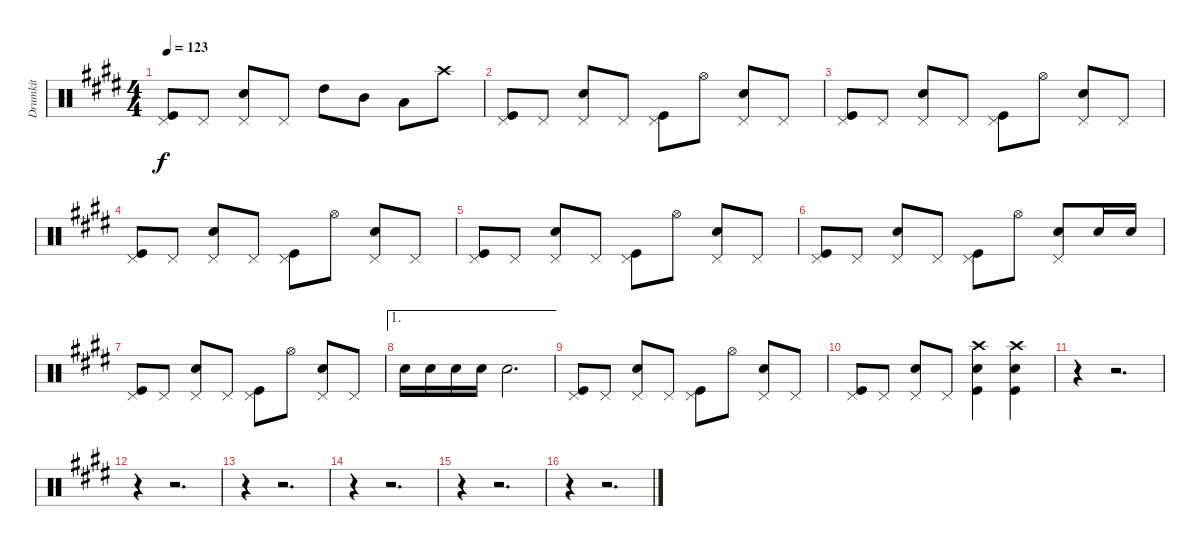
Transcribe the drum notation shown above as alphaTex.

\track ("Drumkit" "Drumkit") {instrument percussion}
\staff {score}
\articulation defaults
\ts (4 4)
\tempo 123
\clef neutral
\ks e
("Pedal Hi-Hat (hit)" "Kick (hit)").8{dy f} "Pedal Hi-Hat (hit)".8 ("Pedal Hi-Hat (hit)" "Snare (hit) 2").8 "Pedal Hi-Hat (hit)".8 "High Tom (hit)".8 "Mid Tom (hit)".8 "Low Tom (hit)".8 "Crash high (hit)".8 |
("Pedal Hi-Hat (hit)" "Kick (hit)").8 "Pedal Hi-Hat (hit)".8 ("Pedal Hi-Hat (hit)" "Snare (hit) 2").8 "Pedal Hi-Hat (hit)".8 ("Pedal Hi-Hat (hit)" "Kick (hit)").8 "Hi-Hat (open)".8 ("Pedal Hi-Hat (hit)" "Snare (hit) 2").8 "Pedal Hi-Hat (hit)".8 |
("Pedal Hi-Hat (hit)" "Kick (hit)").8 "Pedal Hi-Hat (hit)".8 ("Pedal Hi-Hat (hit)" "Snare (hit) 2").8 "Pedal Hi-Hat (hit)".8 ("Pedal Hi-Hat (hit)" "Kick (hit)").8 "Hi-Hat (open)".8 ("Pedal Hi-Hat (hit)" "Snare (hit) 2").8 "Pedal Hi-Hat (hit)".8 |
("Pedal Hi-Hat (hit)" "Kick (hit)").8 "Pedal Hi-Hat (hit)".8 ("Pedal Hi-Hat (hit)" "Snare (hit) 2").8 "Pedal Hi-Hat (hit)".8 ("Pedal Hi-Hat (hit)" "Kick (hit)").8 "Hi-Hat (open)".8 ("Pedal Hi-Hat (hit)" "Snare (hit) 2").8 "Pedal Hi-Hat (hit)".8 |
("Pedal Hi-Hat (hit)" "Kick (hit)").8 "Pedal Hi-Hat (hit)".8 ("Pedal Hi-Hat (hit)" "Snare (hit) 2").8 "Pedal Hi-Hat (hit)".8 ("Pedal Hi-Hat (hit)" "Kick (hit)").8 "Hi-Hat (open)".8 ("Pedal Hi-Hat (hit)" "Snare (hit) 2").8 "Pedal Hi-Hat (hit)".8 |
("Pedal Hi-Hat (hit)" "Kick (hit)").8 "Pedal Hi-Hat (hit)".8 ("Pedal Hi-Hat (hit)" "Snare (hit) 2").8 "Pedal Hi-Hat (hit)".8 ("Pedal Hi-Hat (hit)" "Kick (hit)").8 "Hi-Hat (open)".8 ("Pedal Hi-Hat (hit)" "Snare (hit) 2").8 "Snare (hit) 2".16 "Snare (hit) 2".16 |
("Pedal Hi-Hat (hit)" "Kick (hit)").8 "Pedal Hi-Hat (hit)".8 ("Pedal Hi-Hat (hit)" "Snare (hit) 2").8 "Pedal Hi-Hat (hit)".8 ("Pedal Hi-Hat (hit)" "Kick (hit)").8 "Hi-Hat (open)".8 ("Pedal Hi-Hat (hit)" "Snare (hit) 2").8 "Pedal Hi-Hat (hit)".8 |
\ae 1 "Snare (hit) 2".16 "Snare (hit) 2".16 "Snare (hit) 2".16 "Snare (hit) 2".16 "Snare (hit) 2".2{d}
|
("Pedal Hi-Hat (hit)" "Kick (hit)").8 "Pedal Hi-Hat (hit)".8 ("Pedal Hi-Hat (hit)" "Snare (hit) 2").8 "Pedal Hi-Hat (hit)".8 ("Pedal Hi-Hat (hit)" "Kick (hit)").8 "Hi-Hat (open)".8 ("Pedal Hi-Hat (hit)" "Snare (hit) 2").8 "Pedal Hi-Hat (hit)".8 |
("Pedal Hi-Hat (hit)" "Kick (hit)").8 "Pedal Hi-Hat (hit)".8 ("Pedal Hi-Hat (hit)" "Snare (hit) 2").8 "Pedal Hi-Hat (hit)".8 ("Crash high (hit)" "Snare (hit) 2" "Kick (hit)").4 ("Crash high (hit)" "Snare (hit) 2" "Kick (hit)").4 |
r.4 r.2{d} |
r.4 r.2{d} |
r.4 r.2{d} |
r.4 r.2{d} |
r.4 r.2{d} |
r.4 r.2{d}
